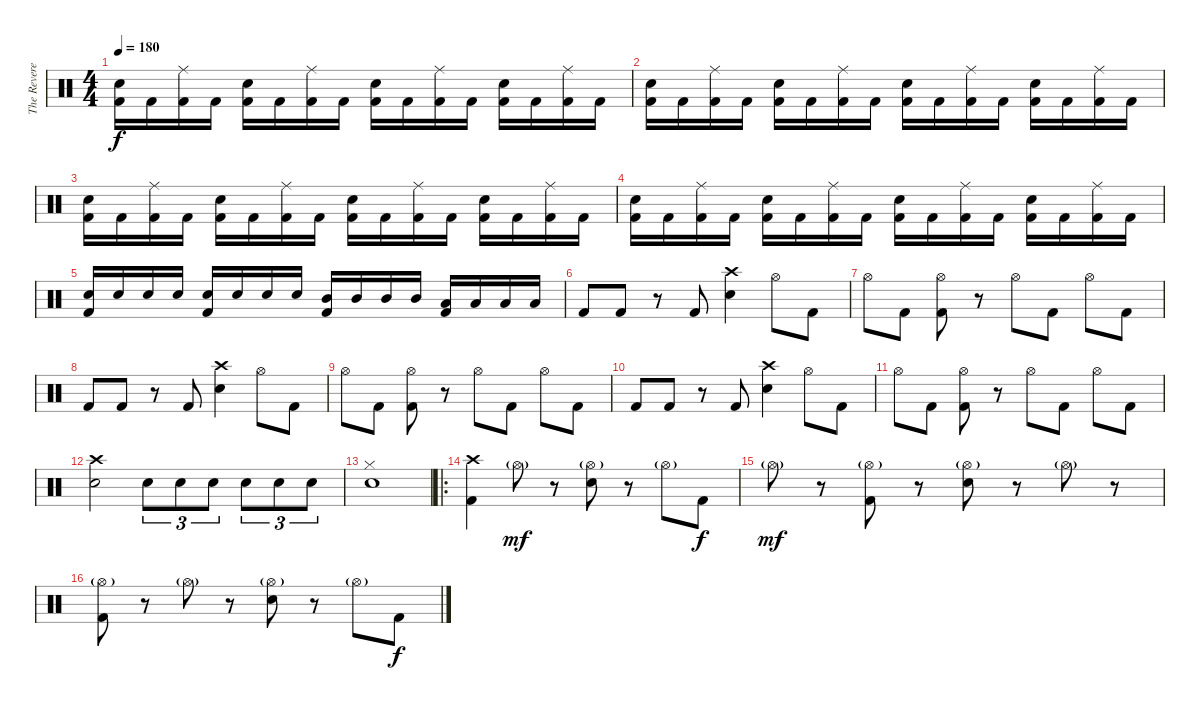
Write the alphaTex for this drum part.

\track ("The Reverend" "The Revere") {instrument percussion}
\staff {score}
\articulation defaults
\ts (4 4)
\tempo 180
\clef neutral
\ks c
("Snare (hit) 2" "Kick (hit) 2").16{dy f} "Kick (hit) 2".16 ("Ride (middle)" "Kick (hit) 2").16 "Kick (hit) 2".16 ("Snare (hit) 2" "Kick (hit) 2").16 "Kick (hit) 2".16 ("Ride (middle)" "Kick (hit) 2").16 "Kick (hit) 2".16 ("Snare (hit) 2" "Kick (hit) 2").16 "Kick (hit) 2".16 ("Ride (middle)" "Kick (hit) 2").16 "Kick (hit) 2".16 ("Snare (hit) 2" "Kick (hit) 2").16 "Kick (hit) 2".16 ("Ride (middle)" "Kick (hit) 2").16 "Kick (hit) 2".16 |
("Snare (hit) 2" "Kick (hit) 2").16 "Kick (hit) 2".16 ("Ride (middle)" "Kick (hit) 2").16 "Kick (hit) 2".16 ("Snare (hit) 2" "Kick (hit) 2").16 "Kick (hit) 2".16 ("Ride (middle)" "Kick (hit) 2").16 "Kick (hit) 2".16 ("Snare (hit) 2" "Kick (hit) 2").16 "Kick (hit) 2".16 ("Ride (middle)" "Kick (hit) 2").16 "Kick (hit) 2".16 ("Snare (hit) 2" "Kick (hit) 2").16 "Kick (hit) 2".16 ("Ride (middle)" "Kick (hit) 2").16 "Kick (hit) 2".16 |
("Snare (hit) 2" "Kick (hit) 2").16 "Kick (hit) 2".16 ("Ride (middle)" "Kick (hit) 2").16 "Kick (hit) 2".16 ("Snare (hit) 2" "Kick (hit) 2").16 "Kick (hit) 2".16 ("Ride (middle)" "Kick (hit) 2").16 "Kick (hit) 2".16 ("Snare (hit) 2" "Kick (hit) 2").16 "Kick (hit) 2".16 ("Ride (middle)" "Kick (hit) 2").16 "Kick (hit) 2".16 ("Snare (hit) 2" "Kick (hit) 2").16 "Kick (hit) 2".16 ("Ride (middle)" "Kick (hit) 2").16 "Kick (hit) 2".16 |
("Snare (hit) 2" "Kick (hit) 2").16 "Kick (hit) 2".16 ("Ride (middle)" "Kick (hit) 2").16 "Kick (hit) 2".16 ("Snare (hit) 2" "Kick (hit) 2").16 "Kick (hit) 2".16 ("Ride (middle)" "Kick (hit) 2").16 "Kick (hit) 2".16 ("Snare (hit) 2" "Kick (hit) 2").16 "Kick (hit) 2".16 ("Ride (middle)" "Kick (hit) 2").16 "Kick (hit) 2".16 ("Snare (hit) 2" "Kick (hit) 2").16 "Kick (hit) 2".16 ("Ride (middle)" "Kick (hit) 2").16 "Kick (hit) 2".16 |
("Kick (hit) 2" "Snare (hit) 2").16 "Snare (hit) 2".16 "Snare (hit) 2".16 "Snare (hit) 2".16 ("Kick (hit) 2" "Snare (hit) 2").16 "Snare (hit) 2".16 "Snare (hit) 2".16 "Snare (hit) 2".16 ("Kick (hit) 2" "Mid Tom (hit)").16 "Mid Tom (hit)".16 "Mid Tom (hit)".16 "Mid Tom (hit)".16 ("Kick (hit) 2" "Low Tom (hit)").16 "Low Tom (hit)".16 "Low Floor Tom (hit)".16 "Low Floor Tom (hit)".16 |
"Kick (hit) 2".8 "Kick (hit) 2".8 r.8 "Kick (hit) 2".8 ("Crash high (hit)" "Snare (hit) 2").4 "Hi-Hat (open)".8 "Kick (hit) 2".8 |
"Hi-Hat (open)".8 "Kick (hit) 2".8 ("Hi-Hat (open)" "Kick (hit) 2").8 r.8 "Hi-Hat (open)".8 "Kick (hit) 2".8 "Hi-Hat (open)".8 "Kick (hit) 2".8 |
"Kick (hit) 2".8 "Kick (hit) 2".8 r.8 "Kick (hit) 2".8 ("Crash high (hit)" "Snare (hit) 2").4 "Hi-Hat (open)".8 "Kick (hit) 2".8 |
"Hi-Hat (open)".8 "Kick (hit) 2".8 ("Hi-Hat (open)" "Kick (hit) 2").8 r.8 "Hi-Hat (open)".8 "Kick (hit) 2".8 "Hi-Hat (open)".8 "Kick (hit) 2".8 |
"Kick (hit) 2".8 "Kick (hit) 2".8 r.8 "Kick (hit) 2".8 ("Crash high (hit)" "Snare (hit) 2").4 "Hi-Hat (open)".8 "Kick (hit) 2".8 |
"Hi-Hat (open)".8 "Kick (hit) 2".8 ("Hi-Hat (open)" "Kick (hit) 2").8 r.8 "Hi-Hat (open)".8 "Kick (hit) 2".8 "Hi-Hat (open)".8 "Kick (hit) 2".8 |
("Crash high (hit)" "Snare (hit) 2").2 "Snare (hit) 2".8{tu (3 2)} "Snare (hit) 2".8{tu (3 2)} "Snare (hit) 2".8{tu (3 2)} "Snare (hit) 2".8{tu (3 2)} "Snare (hit) 2".8{tu (3 2)} "Snare (hit) 2".8{tu (3 2)} |
("Hi-Hat (closed)" "Snare (hit) 2").1 |
\ro
("Crash high (hit)" "Kick (hit) 2").4 "Hi-Hat (open)"{g}.8{dy mf} r.8 ("Hi-Hat (open)"{g} "Snare (hit) 2").8 r.8 "Hi-Hat (open)"{g}.8 "Kick (hit) 2".8{dy f} |
"Hi-Hat (open)"{g}.8{dy mf} r.8 ("Hi-Hat (open)"{g} "Kick (hit) 2").8 r.8 ("Hi-Hat (open)"{g} "Snare (hit) 2").8 r.8 "Hi-Hat (open)"{g}.8 r.8 |
("Hi-Hat (open)"{g} "Kick (hit) 2").8 r.8 "Hi-Hat (open)"{g}.8 r.8 ("Hi-Hat (open)"{g} "Snare (hit) 2").8 r.8 "Hi-Hat (open)"{g}.8 "Kick (hit) 2".8{dy f}
